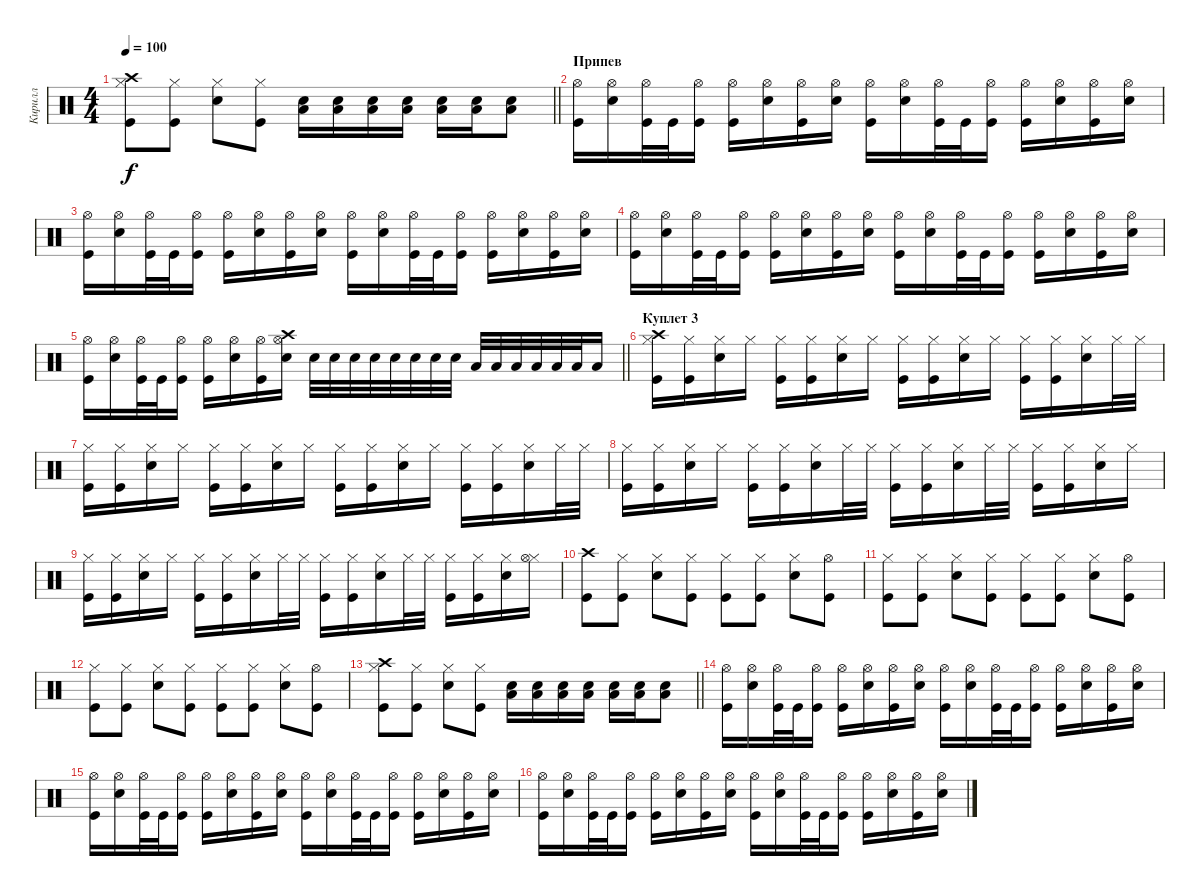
\track ("Кирилл " "Кирилл ") {instrument percussion}
\staff {score}
\articulation defaults
\ts (4 4)
\tempo 100
\clef neutral
\barLineRight lightlight
\ks c
("Hi-Hat (closed)" "Crash high (hit)" "Kick (hit)").8{dy f} ("Hi-Hat (closed)" "Kick (hit)").8 ("Hi-Hat (closed)" "Electric Snare (hit)").8 ("Hi-Hat (closed)" "Kick (hit)").8 ("Low Tom (hit)" "Electric Snare (hit)").16 ("Low Tom (hit)" "Electric Snare (hit)").16 ("Low Tom (hit)" "Electric Snare (hit)").16 ("Low Tom (hit)" "Electric Snare (hit)").16 ("Low Tom (hit)" "Electric Snare (hit)").16 ("Low Tom (hit)" "Electric Snare (hit)").16 ("Low Tom (hit)" "Electric Snare (hit)").8 |
\section ("" "Припев")
("Hi-Hat (open)" "Kick (hit)").16 ("Hi-Hat (open)" "Electric Snare (hit)").16 ("Hi-Hat (open)" "Kick (hit)").32 "Kick (hit)".32 ("Hi-Hat (open)" "Kick (hit)").16 ("Hi-Hat (open)" "Kick (hit)").16 ("Hi-Hat (open)" "Electric Snare (hit)").16 ("Hi-Hat (open)" "Kick (hit)").16 ("Hi-Hat (open)" "Electric Snare (hit)").16 ("Hi-Hat (open)" "Kick (hit)").16 ("Hi-Hat (open)" "Electric Snare (hit)").16 ("Hi-Hat (open)" "Kick (hit)").32 "Kick (hit)".32 ("Hi-Hat (open)" "Kick (hit)").16 ("Hi-Hat (open)" "Kick (hit)").16 ("Hi-Hat (open)" "Electric Snare (hit)").16 ("Hi-Hat (open)" "Kick (hit)").16 ("Hi-Hat (open)" "Electric Snare (hit)").16 |
("Hi-Hat (open)" "Kick (hit)").16 ("Hi-Hat (open)" "Electric Snare (hit)").16 ("Hi-Hat (open)" "Kick (hit)").32 "Kick (hit)".32 ("Hi-Hat (open)" "Kick (hit)").16 ("Hi-Hat (open)" "Kick (hit)").16 ("Hi-Hat (open)" "Electric Snare (hit)").16 ("Hi-Hat (open)" "Kick (hit)").16 ("Hi-Hat (open)" "Electric Snare (hit)").16 ("Hi-Hat (open)" "Kick (hit)").16 ("Hi-Hat (open)" "Electric Snare (hit)").16 ("Hi-Hat (open)" "Kick (hit)").32 "Kick (hit)".32 ("Hi-Hat (open)" "Kick (hit)").16 ("Hi-Hat (open)" "Kick (hit)").16 ("Hi-Hat (open)" "Electric Snare (hit)").16 ("Hi-Hat (open)" "Kick (hit)").16 ("Hi-Hat (open)" "Electric Snare (hit)").16 |
("Hi-Hat (open)" "Kick (hit)").16 ("Hi-Hat (open)" "Electric Snare (hit)").16 ("Hi-Hat (open)" "Kick (hit)").32 "Kick (hit)".32 ("Hi-Hat (open)" "Kick (hit)").16 ("Hi-Hat (open)" "Kick (hit)").16 ("Hi-Hat (open)" "Electric Snare (hit)").16 ("Hi-Hat (open)" "Kick (hit)").16 ("Hi-Hat (open)" "Electric Snare (hit)").16 ("Hi-Hat (open)" "Kick (hit)").16 ("Hi-Hat (open)" "Electric Snare (hit)").16 ("Hi-Hat (open)" "Kick (hit)").32 "Kick (hit)".32 ("Hi-Hat (open)" "Kick (hit)").16 ("Hi-Hat (open)" "Kick (hit)").16 ("Hi-Hat (open)" "Electric Snare (hit)").16 ("Hi-Hat (open)" "Kick (hit)").16 ("Hi-Hat (open)" "Electric Snare (hit)").16 |
\barLineRight lightlight
("Hi-Hat (open)" "Kick (hit)").16 ("Hi-Hat (open)" "Electric Snare (hit)").16 ("Hi-Hat (open)" "Kick (hit)").32 "Kick (hit)".32 ("Hi-Hat (open)" "Kick (hit)").16 ("Hi-Hat (open)" "Kick (hit)").16 ("Hi-Hat (open)" "Electric Snare (hit)").16 ("Hi-Hat (open)" "Kick (hit)").16 ("Hi-Hat (open)" "Crash high (hit)" "Electric Snare (hit)").16 "Snare (hit) 2".32 "Snare (hit) 2".32 "Snare (hit) 2".32 "Snare (hit) 2".32 "Snare (hit) 2".32 "Snare (hit) 2".32 "Snare (hit) 2".32 "Snare (hit) 2".32 "Low Tom (hit)".32 "Low Tom (hit)".32 "Low Tom (hit)".32 "Low Tom (hit)".32 "Low Tom (hit)".32 "Low Tom (hit)".32 "Low Tom (hit)".16 |
\section ("" "Куплет 3")
("Hi-Hat (closed)" "Crash high (hit)" "Kick (hit)").16 ("Hi-Hat (closed)" "Kick (hit)").16 ("Hi-Hat (closed)" "Electric Snare (hit)").16 "Hi-Hat (closed)".16 ("Hi-Hat (closed)" "Kick (hit)").16 ("Hi-Hat (closed)" "Kick (hit)").16 ("Hi-Hat (closed)" "Electric Snare (hit)").16 "Hi-Hat (closed)".16 ("Hi-Hat (closed)" "Kick (hit)").16 ("Hi-Hat (closed)" "Kick (hit)").16 ("Hi-Hat (closed)" "Electric Snare (hit)").16 "Hi-Hat (closed)".16 ("Hi-Hat (closed)" "Kick (hit)").16 ("Hi-Hat (closed)" "Kick (hit)").16 ("Hi-Hat (closed)" "Electric Snare (hit)").16 "Hi-Hat (closed)".32 "Hi-Hat (closed)".32 |
("Hi-Hat (closed)" "Kick (hit)").16 ("Hi-Hat (closed)" "Kick (hit)").16 ("Hi-Hat (closed)" "Electric Snare (hit)").16 "Hi-Hat (closed)".16 ("Hi-Hat (closed)" "Kick (hit)").16 ("Hi-Hat (closed)" "Kick (hit)").16 ("Hi-Hat (closed)" "Electric Snare (hit)").16 "Hi-Hat (closed)".16 ("Hi-Hat (closed)" "Kick (hit)").16 ("Hi-Hat (closed)" "Kick (hit)").16 ("Hi-Hat (closed)" "Electric Snare (hit)").16 "Hi-Hat (closed)".16 ("Hi-Hat (closed)" "Kick (hit)").16 ("Hi-Hat (closed)" "Kick (hit)").16 ("Hi-Hat (closed)" "Electric Snare (hit)").16 "Hi-Hat (closed)".32 "Hi-Hat (closed)".32 |
("Hi-Hat (closed)" "Kick (hit)").16 ("Hi-Hat (closed)" "Kick (hit)").16 ("Hi-Hat (closed)" "Electric Snare (hit)").16 "Hi-Hat (closed)".16 ("Hi-Hat (closed)" "Kick (hit)").16 ("Hi-Hat (closed)" "Kick (hit)").16 ("Hi-Hat (closed)" "Electric Snare (hit)").16 "Hi-Hat (closed)".32 "Hi-Hat (closed)".32 ("Hi-Hat (closed)" "Kick (hit)").16 ("Hi-Hat (closed)" "Kick (hit)").16 ("Hi-Hat (closed)" "Electric Snare (hit)").16 "Hi-Hat (closed)".32 "Hi-Hat (closed)".32 ("Hi-Hat (closed)" "Kick (hit)").16 ("Hi-Hat (closed)" "Kick (hit)").16 ("Hi-Hat (closed)" "Electric Snare (hit)").16 "Hi-Hat (closed)".16 |
("Hi-Hat (closed)" "Kick (hit)").16 ("Hi-Hat (closed)" "Kick (hit)").16 ("Hi-Hat (closed)" "Electric Snare (hit)").16 "Hi-Hat (closed)".16 ("Hi-Hat (closed)" "Kick (hit)").16 ("Hi-Hat (closed)" "Kick (hit)").16 ("Hi-Hat (closed)" "Electric Snare (hit)").16 "Hi-Hat (closed)".32 "Hi-Hat (closed)".32 ("Hi-Hat (closed)" "Kick (hit)").16 ("Hi-Hat (closed)" "Kick (hit)").16 ("Hi-Hat (closed)" "Electric Snare (hit)").16 "Hi-Hat (closed)".32 "Hi-Hat (closed)".32 ("Hi-Hat (closed)" "Kick (hit)").16 ("Hi-Hat (closed)" "Kick (hit)").16 ("Hi-Hat (closed)" "Electric Snare (hit)").16 ("Hi-Hat (closed)" "Hi-Hat (open)").16 |
("Crash high (hit)" "Kick (hit)").8 ("Hi-Hat (closed)" "Kick (hit)").8 ("Hi-Hat (closed)" "Electric Snare (hit)").8 ("Hi-Hat (closed)" "Kick (hit)").8 ("Hi-Hat (closed)" "Kick (hit)").8 ("Hi-Hat (closed)" "Kick (hit)").8 ("Hi-Hat (closed)" "Electric Snare (hit)").8 ("Hi-Hat (open)" "Kick (hit)").8 |
("Hi-Hat (closed)" "Kick (hit)").8 ("Hi-Hat (closed)" "Kick (hit)").8 ("Hi-Hat (closed)" "Electric Snare (hit)").8 ("Hi-Hat (closed)" "Kick (hit)").8 ("Hi-Hat (closed)" "Kick (hit)").8 ("Hi-Hat (closed)" "Kick (hit)").8 ("Hi-Hat (closed)" "Electric Snare (hit)").8 ("Hi-Hat (open)" "Kick (hit)").8 |
("Hi-Hat (closed)" "Kick (hit)").8 ("Hi-Hat (closed)" "Kick (hit)").8 ("Hi-Hat (closed)" "Electric Snare (hit)").8 ("Hi-Hat (closed)" "Kick (hit)").8 ("Hi-Hat (closed)" "Kick (hit)").8 ("Hi-Hat (closed)" "Kick (hit)").8 ("Hi-Hat (closed)" "Electric Snare (hit)").8 ("Hi-Hat (open)" "Kick (hit)").8 |
\barLineRight lightlight
("Hi-Hat (closed)" "Crash high (hit)" "Kick (hit)").8 ("Hi-Hat (closed)" "Kick (hit)").8 ("Hi-Hat (closed)" "Electric Snare (hit)").8 ("Hi-Hat (closed)" "Kick (hit)").8 ("Low Tom (hit)" "Electric Snare (hit)").16 ("Low Tom (hit)" "Electric Snare (hit)").16 ("Low Tom (hit)" "Electric Snare (hit)").16 ("Low Tom (hit)" "Electric Snare (hit)").16 ("Low Tom (hit)" "Electric Snare (hit)").16 ("Low Tom (hit)" "Electric Snare (hit)").16 ("Low Tom (hit)" "Electric Snare (hit)").8 |
("Hi-Hat (open)" "Kick (hit)").16 ("Hi-Hat (open)" "Electric Snare (hit)").16 ("Hi-Hat (open)" "Kick (hit)").32 "Kick (hit)".32 ("Hi-Hat (open)" "Kick (hit)").16 ("Hi-Hat (open)" "Kick (hit)").16 ("Hi-Hat (open)" "Electric Snare (hit)").16 ("Hi-Hat (open)" "Kick (hit)").16 ("Hi-Hat (open)" "Electric Snare (hit)").16 ("Hi-Hat (open)" "Kick (hit)").16 ("Hi-Hat (open)" "Electric Snare (hit)").16 ("Hi-Hat (open)" "Kick (hit)").32 "Kick (hit)".32 ("Hi-Hat (open)" "Kick (hit)").16 ("Hi-Hat (open)" "Kick (hit)").16 ("Hi-Hat (open)" "Electric Snare (hit)").16 ("Hi-Hat (open)" "Kick (hit)").16 ("Hi-Hat (open)" "Electric Snare (hit)").16 |
("Hi-Hat (open)" "Kick (hit)").16 ("Hi-Hat (open)" "Electric Snare (hit)").16 ("Hi-Hat (open)" "Kick (hit)").32 "Kick (hit)".32 ("Hi-Hat (open)" "Kick (hit)").16 ("Hi-Hat (open)" "Kick (hit)").16 ("Hi-Hat (open)" "Electric Snare (hit)").16 ("Hi-Hat (open)" "Kick (hit)").16 ("Hi-Hat (open)" "Electric Snare (hit)").16 ("Hi-Hat (open)" "Kick (hit)").16 ("Hi-Hat (open)" "Electric Snare (hit)").16 ("Hi-Hat (open)" "Kick (hit)").32 "Kick (hit)".32 ("Hi-Hat (open)" "Kick (hit)").16 ("Hi-Hat (open)" "Kick (hit)").16 ("Hi-Hat (open)" "Electric Snare (hit)").16 ("Hi-Hat (open)" "Kick (hit)").16 ("Hi-Hat (open)" "Electric Snare (hit)").16 |
("Hi-Hat (open)" "Kick (hit)").16 ("Hi-Hat (open)" "Electric Snare (hit)").16 ("Hi-Hat (open)" "Kick (hit)").32 "Kick (hit)".32 ("Hi-Hat (open)" "Kick (hit)").16 ("Hi-Hat (open)" "Kick (hit)").16 ("Hi-Hat (open)" "Electric Snare (hit)").16 ("Hi-Hat (open)" "Kick (hit)").16 ("Hi-Hat (open)" "Electric Snare (hit)").16 ("Hi-Hat (open)" "Kick (hit)").16 ("Hi-Hat (open)" "Electric Snare (hit)").16 ("Hi-Hat (open)" "Kick (hit)").32 "Kick (hit)".32 ("Hi-Hat (open)" "Kick (hit)").16 ("Hi-Hat (open)" "Kick (hit)").16 ("Hi-Hat (open)" "Electric Snare (hit)").16 ("Hi-Hat (open)" "Kick (hit)").16 ("Hi-Hat (open)" "Electric Snare (hit)").16
